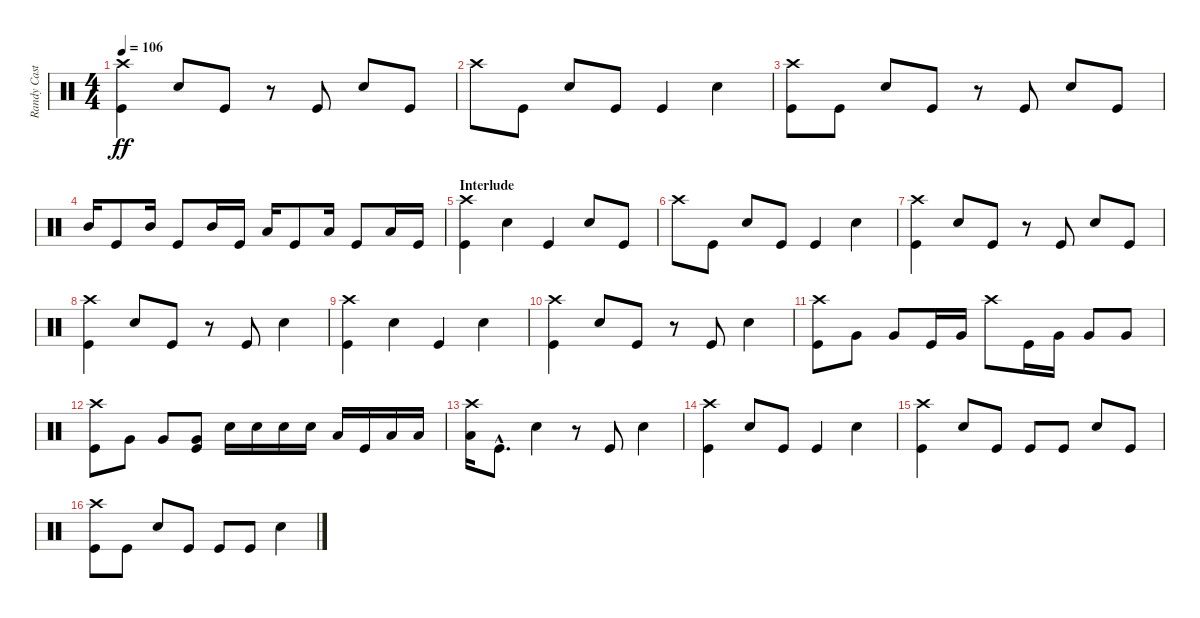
\track ("Randy Castillo" "Randy Cast") {instrument percussion}
\staff {score}
\articulation defaults
\ts (4 4)
\tempo 106
\clef neutral
\ks c
("Crash high (hit)" "Kick (hit)").4{dy ff} "Snare (hit) 2".8 "Kick (hit)".8 r.8 "Kick (hit)".8 "Snare (hit) 2".8 "Kick (hit)".8 |
"Crash high (hit)".8 "Kick (hit)".8 "Snare (hit) 2".8 "Kick (hit)".8 "Kick (hit)".4 "Snare (hit) 2".4 |
("Crash high (hit)" "Kick (hit)").8 "Kick (hit)".8 "Snare (hit) 2".8 "Kick (hit)".8 r.8 "Kick (hit)".8 "Snare (hit) 2".8 "Kick (hit)".8 |
"Mid Tom (hit)".16 "Kick (hit)".8 "Mid Tom (hit)".16 "Kick (hit)".8 "Mid Tom (hit)".16 "Kick (hit)".16 "Low Tom (hit)".16 "Kick (hit)".8 "Low Tom (hit)".16 "Kick (hit)".8 "Low Tom (hit)".16 "Kick (hit)".16 |
\section ("" "Interlude")
("Crash high (hit)" "Kick (hit)").4 "Snare (hit) 2".4 "Kick (hit)".4 "Snare (hit) 2".8 "Kick (hit)".8 |
"Crash high (hit)".8 "Kick (hit)".8 "Snare (hit) 2".8 "Kick (hit)".8 "Kick (hit)".4 "Snare (hit) 2".4 |
("Crash high (hit)" "Kick (hit)").4 "Snare (hit) 2".8 "Kick (hit)".8 r.8 "Kick (hit)".8 "Snare (hit) 2".8 "Kick (hit)".8 |
("Crash high (hit)" "Kick (hit)").4 "Snare (hit) 2".8 "Kick (hit)".8 r.8 "Kick (hit)".8 "Snare (hit) 2".4 |
("Crash high (hit)" "Kick (hit)").4 "Snare (hit) 2".4 "Kick (hit)".4 "Snare (hit) 2".4 |
("Crash high (hit)" "Kick (hit)").4 "Snare (hit) 2".8 "Kick (hit)".8 r.8 "Kick (hit)".8 "Snare (hit) 2".4 |
("Crash high (hit)" "Kick (hit)").8 "Very Low Tom (hit)".8 "Very Low Tom (hit)".8 "Kick (hit)".16 "Very Low Tom (hit)".16 "Crash high (hit)".8 "Kick (hit)".16 "Very Low Tom (hit)".16 "Very Low Tom (hit)".8 "Very Low Tom (hit)".8 |
("Crash high (hit)" "Kick (hit)").8 "Very Low Tom (hit)".8 "Very Low Tom (hit)".8 ("Very Low Tom (hit)" "Kick (hit)").8 "Snare (hit) 2".16 "Snare (hit) 2".16 "Snare (hit) 2".16 "Snare (hit) 2".16 "Low Tom (hit)".16 "Kick (hit)".16 "Low Tom (hit)".16 "Low Tom (hit)".16 |
("Crash high (hit)" "Low Tom (hit)").16 "Kick (hit)"{hac}.8{d} "Snare (hit) 2".4 r.8 "Kick (hit)".8 "Snare (hit) 2".4 |
("Crash high (hit)" "Kick (hit)").4 "Snare (hit) 2".8 "Kick (hit)".8 "Kick (hit)".4 "Snare (hit) 2".4 |
("Crash high (hit)" "Kick (hit)").4 "Snare (hit) 2".8 "Kick (hit)".8 "Kick (hit)".8 "Kick (hit)".8 "Snare (hit) 2".8 "Kick (hit)".8 |
("Crash high (hit)" "Kick (hit)").8 "Kick (hit)".8 "Snare (hit) 2".8 "Kick (hit)".8 "Kick (hit)".8 "Kick (hit)".8 "Snare (hit) 2".4
